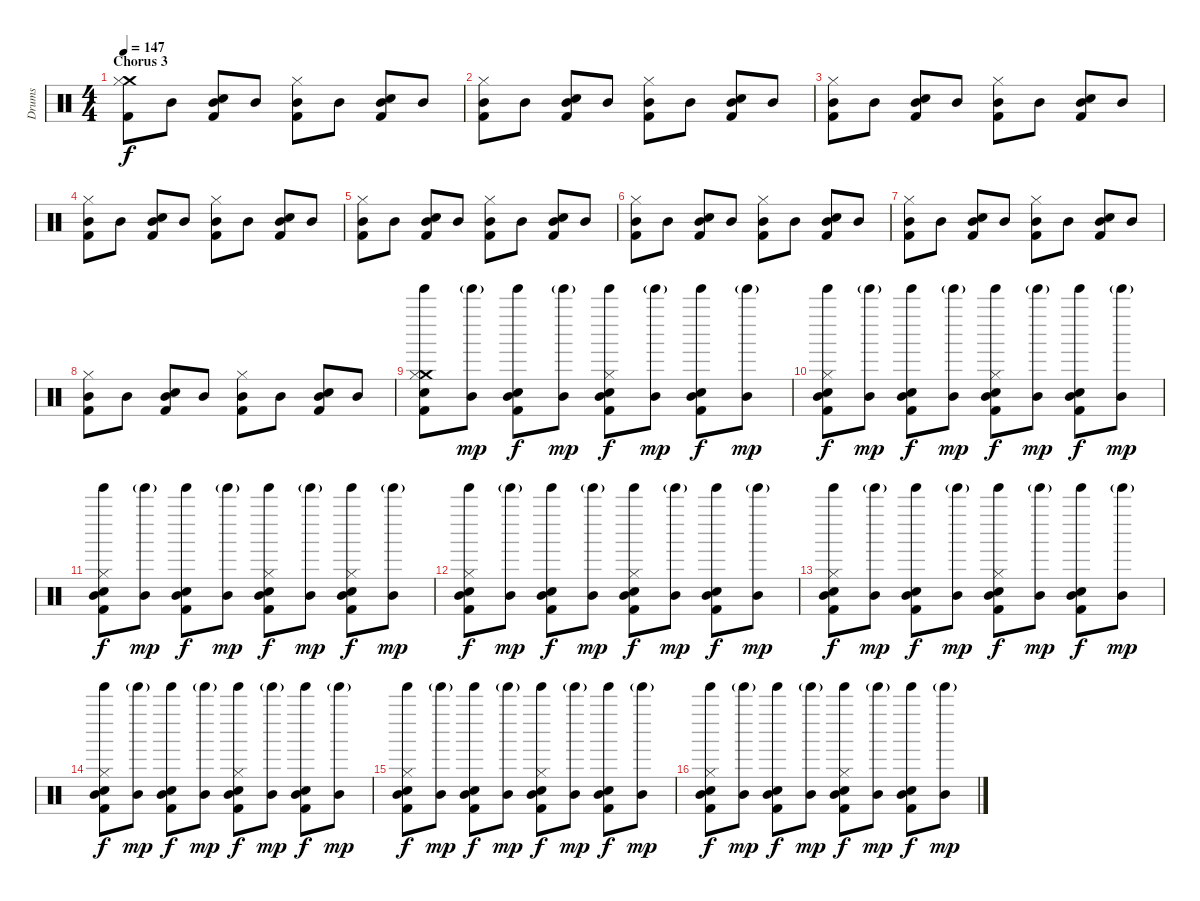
\track ("Drums" "Drums") {instrument percussion}
\staff {score}
\articulation defaults
\ts (4 4)
\section ("" "Chorus 3")
\tempo 147
\clef neutral
\ks c
("Crash medium (hit)" "Hi-Hat (closed)" "Kick (hit) 2").8{dy f} "Mid Tom (hit)".8 ("Mid Tom (hit)" "Electric Snare (hit)" "Kick (hit) 2").8 "Mid Tom (hit)".8 ("Mid Tom (hit)" "Hi-Hat (closed)" "Kick (hit) 2").8 "Mid Tom (hit)".8 ("Mid Tom (hit)" "Electric Snare (hit)" "Kick (hit) 2").8 "Mid Tom (hit)".8 |
("Mid Tom (hit)" "Hi-Hat (closed)" "Kick (hit) 2").8 "Mid Tom (hit)".8 ("Mid Tom (hit)" "Electric Snare (hit)" "Kick (hit) 2").8 "Mid Tom (hit)".8 ("Mid Tom (hit)" "Hi-Hat (closed)" "Kick (hit) 2").8 "Mid Tom (hit)".8 ("Mid Tom (hit)" "Electric Snare (hit)" "Kick (hit) 2").8 "Mid Tom (hit)".8 |
("Mid Tom (hit)" "Hi-Hat (closed)" "Kick (hit) 2").8 "Mid Tom (hit)".8 ("Mid Tom (hit)" "Electric Snare (hit)" "Kick (hit) 2").8 "Mid Tom (hit)".8 ("Mid Tom (hit)" "Hi-Hat (closed)" "Kick (hit) 2").8 "Mid Tom (hit)".8 ("Mid Tom (hit)" "Electric Snare (hit)" "Kick (hit) 2").8 "Mid Tom (hit)".8 |
("Mid Tom (hit)" "Hi-Hat (closed)" "Kick (hit) 2").8 "Mid Tom (hit)".8 ("Mid Tom (hit)" "Electric Snare (hit)" "Kick (hit) 2").8 "Mid Tom (hit)".8 ("Mid Tom (hit)" "Hi-Hat (closed)" "Kick (hit) 2").8 "Mid Tom (hit)".8 ("Mid Tom (hit)" "Electric Snare (hit)" "Kick (hit) 2").8 "Mid Tom (hit)".8 |
("Mid Tom (hit)" "Hi-Hat (closed)" "Kick (hit) 2").8 "Mid Tom (hit)".8 ("Mid Tom (hit)" "Electric Snare (hit)" "Kick (hit) 2").8 "Mid Tom (hit)".8 ("Mid Tom (hit)" "Hi-Hat (closed)" "Kick (hit) 2").8 "Mid Tom (hit)".8 ("Mid Tom (hit)" "Electric Snare (hit)" "Kick (hit) 2").8 "Mid Tom (hit)".8 |
("Mid Tom (hit)" "Hi-Hat (closed)" "Kick (hit) 2").8 "Mid Tom (hit)".8 ("Mid Tom (hit)" "Electric Snare (hit)" "Kick (hit) 2").8 "Mid Tom (hit)".8 ("Mid Tom (hit)" "Hi-Hat (closed)" "Kick (hit) 2").8 "Mid Tom (hit)".8 ("Mid Tom (hit)" "Electric Snare (hit)" "Kick (hit) 2").8 "Mid Tom (hit)".8 |
("Mid Tom (hit)" "Hi-Hat (closed)" "Kick (hit) 2").8 "Mid Tom (hit)".8 ("Mid Tom (hit)" "Electric Snare (hit)" "Kick (hit) 2").8 "Mid Tom (hit)".8 ("Mid Tom (hit)" "Hi-Hat (closed)" "Kick (hit) 2").8 "Mid Tom (hit)".8 ("Mid Tom (hit)" "Electric Snare (hit)" "Kick (hit) 2").8 "Mid Tom (hit)".8 |
("Mid Tom (hit)" "Hi-Hat (closed)" "Kick (hit) 2").8 "Mid Tom (hit)".8 ("Mid Tom (hit)" "Electric Snare (hit)" "Kick (hit) 2").8 "Mid Tom (hit)".8 ("Mid Tom (hit)" "Hi-Hat (closed)" "Kick (hit) 2").8 "Mid Tom (hit)".8 ("Mid Tom (hit)" "Electric Snare (hit)" "Kick (hit) 2").8 "Mid Tom (hit)".8 |
("Crash medium (hit)" "Tinkle Bell (hit)" "Hand Clap (hit)" "Hi-Hat (closed)" "Kick (hit) 2").8 ("Mid Tom (hit)" "Tinkle Bell (hit)"{g}).8{dy mp} ("Mid Tom (hit)" "Tinkle Bell (hit)" "Electric Snare (hit)" "Kick (hit) 2").8{dy f} ("Mid Tom (hit)" "Tinkle Bell (hit)"{g}).8{dy mp} ("Mid Tom (hit)" "Tinkle Bell (hit)" "Hand Clap (hit)" "Hi-Hat (closed)" "Kick (hit) 2").8{dy f} ("Mid Tom (hit)" "Tinkle Bell (hit)"{g}).8{dy mp} ("Mid Tom (hit)" "Tinkle Bell (hit)" "Electric Snare (hit)" "Kick (hit) 2").8{dy f} ("Mid Tom (hit)" "Tinkle Bell (hit)"{g}).8{dy mp} |
("Mid Tom (hit)" "Tinkle Bell (hit)" "Hand Clap (hit)" "Hi-Hat (closed)" "Kick (hit) 2").8{dy f} ("Mid Tom (hit)" "Tinkle Bell (hit)"{g}).8{dy mp} ("Mid Tom (hit)" "Tinkle Bell (hit)" "Electric Snare (hit)" "Kick (hit) 2").8{dy f} ("Mid Tom (hit)" "Tinkle Bell (hit)"{g}).8{dy mp} ("Mid Tom (hit)" "Tinkle Bell (hit)" "Hand Clap (hit)" "Hi-Hat (closed)" "Kick (hit) 2").8{dy f} ("Mid Tom (hit)" "Tinkle Bell (hit)"{g}).8{dy mp} ("Mid Tom (hit)" "Tinkle Bell (hit)" "Electric Snare (hit)" "Kick (hit) 2").8{dy f} ("Mid Tom (hit)" "Tinkle Bell (hit)"{g}).8{dy mp} |
("Mid Tom (hit)" "Tinkle Bell (hit)" "Hand Clap (hit)" "Hi-Hat (closed)" "Kick (hit) 2").8{dy f} ("Mid Tom (hit)" "Tinkle Bell (hit)"{g}).8{dy mp} ("Mid Tom (hit)" "Tinkle Bell (hit)" "Electric Snare (hit)" "Kick (hit) 2").8{dy f} ("Mid Tom (hit)" "Tinkle Bell (hit)"{g}).8{dy mp} ("Mid Tom (hit)" "Tinkle Bell (hit)" "Hand Clap (hit)" "Hi-Hat (closed)" "Kick (hit) 2").8{dy f} ("Mid Tom (hit)" "Tinkle Bell (hit)"{g}).8{dy mp} ("Mid Tom (hit)" "Tinkle Bell (hit)" "Electric Snare (hit)" "Hi-Hat (closed)" "Kick (hit) 2").8{dy f} ("Mid Tom (hit)" "Tinkle Bell (hit)"{g}).8{dy mp} |
("Mid Tom (hit)" "Tinkle Bell (hit)" "Hand Clap (hit)" "Hi-Hat (closed)" "Kick (hit) 2").8{dy f} ("Mid Tom (hit)" "Tinkle Bell (hit)"{g}).8{dy mp} ("Mid Tom (hit)" "Tinkle Bell (hit)" "Electric Snare (hit)" "Kick (hit) 2").8{dy f} ("Mid Tom (hit)" "Tinkle Bell (hit)"{g}).8{dy mp} ("Mid Tom (hit)" "Tinkle Bell (hit)" "Hand Clap (hit)" "Hi-Hat (closed)" "Kick (hit) 2").8{dy f} ("Mid Tom (hit)" "Tinkle Bell (hit)"{g}).8{dy mp} ("Mid Tom (hit)" "Tinkle Bell (hit)" "Electric Snare (hit)" "Kick (hit) 2").8{dy f} ("Mid Tom (hit)" "Tinkle Bell (hit)"{g}).8{dy mp} |
("Mid Tom (hit)" "Tinkle Bell (hit)" "Hand Clap (hit)" "Hi-Hat (closed)" "Kick (hit) 2").8{dy f} ("Mid Tom (hit)" "Tinkle Bell (hit)"{g}).8{dy mp} ("Mid Tom (hit)" "Tinkle Bell (hit)" "Electric Snare (hit)" "Kick (hit) 2").8{dy f} ("Mid Tom (hit)" "Tinkle Bell (hit)"{g}).8{dy mp} ("Mid Tom (hit)" "Tinkle Bell (hit)" "Hand Clap (hit)" "Hi-Hat (closed)" "Kick (hit) 2").8{dy f} ("Mid Tom (hit)" "Tinkle Bell (hit)"{g}).8{dy mp} ("Mid Tom (hit)" "Tinkle Bell (hit)" "Electric Snare (hit)" "Kick (hit) 2").8{dy f} ("Mid Tom (hit)" "Tinkle Bell (hit)"{g}).8{dy mp} |
("Mid Tom (hit)" "Tinkle Bell (hit)" "Hand Clap (hit)" "Hi-Hat (closed)" "Kick (hit) 2").8{dy f} ("Mid Tom (hit)" "Tinkle Bell (hit)"{g}).8{dy mp} ("Mid Tom (hit)" "Tinkle Bell (hit)" "Electric Snare (hit)" "Kick (hit) 2").8{dy f} ("Mid Tom (hit)" "Tinkle Bell (hit)"{g}).8{dy mp} ("Mid Tom (hit)" "Tinkle Bell (hit)" "Hand Clap (hit)" "Hi-Hat (closed)" "Kick (hit) 2").8{dy f} ("Mid Tom (hit)" "Tinkle Bell (hit)"{g}).8{dy mp} ("Mid Tom (hit)" "Tinkle Bell (hit)" "Electric Snare (hit)" "Kick (hit) 2").8{dy f} ("Mid Tom (hit)" "Tinkle Bell (hit)"{g}).8{dy mp} |
("Mid Tom (hit)" "Tinkle Bell (hit)" "Hand Clap (hit)" "Hi-Hat (closed)" "Kick (hit) 2").8{dy f} ("Mid Tom (hit)" "Tinkle Bell (hit)"{g}).8{dy mp} ("Mid Tom (hit)" "Tinkle Bell (hit)" "Electric Snare (hit)" "Kick (hit) 2").8{dy f} ("Mid Tom (hit)" "Tinkle Bell (hit)"{g}).8{dy mp} ("Mid Tom (hit)" "Tinkle Bell (hit)" "Hand Clap (hit)" "Hi-Hat (closed)" "Kick (hit) 2").8{dy f} ("Mid Tom (hit)" "Tinkle Bell (hit)"{g}).8{dy mp} ("Mid Tom (hit)" "Tinkle Bell (hit)" "Electric Snare (hit)" "Kick (hit) 2").8{dy f} ("Mid Tom (hit)" "Tinkle Bell (hit)"{g}).8{dy mp} |
("Mid Tom (hit)" "Tinkle Bell (hit)" "Hand Clap (hit)" "Hi-Hat (closed)" "Kick (hit) 2").8{dy f} ("Mid Tom (hit)" "Tinkle Bell (hit)"{g}).8{dy mp} ("Mid Tom (hit)" "Tinkle Bell (hit)" "Electric Snare (hit)" "Kick (hit) 2").8{dy f} ("Mid Tom (hit)" "Tinkle Bell (hit)"{g}).8{dy mp} ("Mid Tom (hit)" "Tinkle Bell (hit)" "Hand Clap (hit)" "Hi-Hat (closed)" "Kick (hit) 2").8{dy f} ("Mid Tom (hit)" "Tinkle Bell (hit)"{g}).8{dy mp} ("Mid Tom (hit)" "Tinkle Bell (hit)" "Electric Snare (hit)" "Kick (hit) 2").8{dy f} ("Mid Tom (hit)" "Tinkle Bell (hit)"{g}).8{dy mp}
